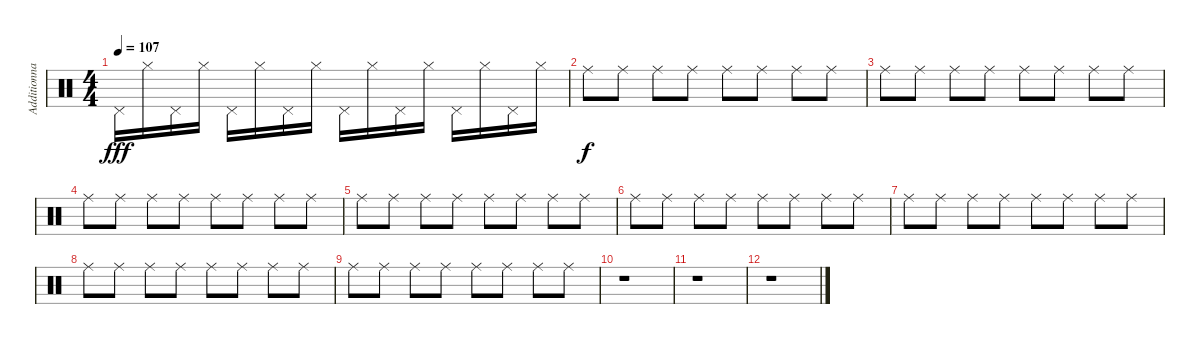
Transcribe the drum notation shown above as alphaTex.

\track ("Additionnals Symbals" "Additionna") {instrument percussion}
\staff {score}
\articulation defaults
\ts (4 4)
\tempo 107
\clef neutral
\ks c "Pedal Hi-Hat (hit)".16{dy fff} "Hi-Hat (closed)".16 "Pedal Hi-Hat (hit)".16 "Hi-Hat (closed)".16 "Pedal Hi-Hat (hit)".16 "Hi-Hat (closed)".16 "Pedal Hi-Hat (hit)".16 "Hi-Hat (closed)".16 "Pedal Hi-Hat (hit)".16 "Hi-Hat (closed)".16 "Pedal Hi-Hat (hit)".16 "Hi-Hat (closed)".16 "Pedal Hi-Hat (hit)".16 "Hi-Hat (closed)".16 "Pedal Hi-Hat (hit)".16 "Hi-Hat (closed)".16
|
"Ride (middle)".8{dy f} "Ride (middle)".8 "Ride (middle)".8 "Ride (middle)".8 "Ride (middle)".8 "Ride (middle)".8 "Ride (middle)".8 "Ride (middle)".8 |
"Ride (middle)".8 "Ride (middle)".8 "Ride (middle)".8 "Ride (middle)".8 "Ride (middle)".8 "Ride (middle)".8 "Ride (middle)".8 "Ride (middle)".8 |
"Ride (middle)".8 "Ride (middle)".8 "Ride (middle)".8 "Ride (middle)".8 "Ride (middle)".8 "Ride (middle)".8 "Ride (middle)".8 "Ride (middle)".8 |
"Ride (middle)".8 "Ride (middle)".8 "Ride (middle)".8 "Ride (middle)".8 "Ride (middle)".8 "Ride (middle)".8 "Ride (middle)".8 "Ride (middle)".8 |
"Ride (middle)".8 "Ride (middle)".8 "Ride (middle)".8 "Ride (middle)".8 "Ride (middle)".8 "Ride (middle)".8 "Ride (middle)".8 "Ride (middle)".8 |
"Ride (middle)".8 "Ride (middle)".8 "Ride (middle)".8 "Ride (middle)".8 "Ride (middle)".8 "Ride (middle)".8 "Ride (middle)".8 "Ride (middle)".8 |
"Ride (middle)".8 "Ride (middle)".8 "Ride (middle)".8 "Ride (middle)".8 "Ride (middle)".8 "Ride (middle)".8 "Ride (middle)".8 "Ride (middle)".8 |
"Ride (middle)".8 "Ride (middle)".8 "Ride (middle)".8 "Ride (middle)".8 "Ride (middle)".8 "Ride (middle)".8 "Ride (middle)".8 "Ride (middle)".8 |
r.1 |
r.1 |
r.1
